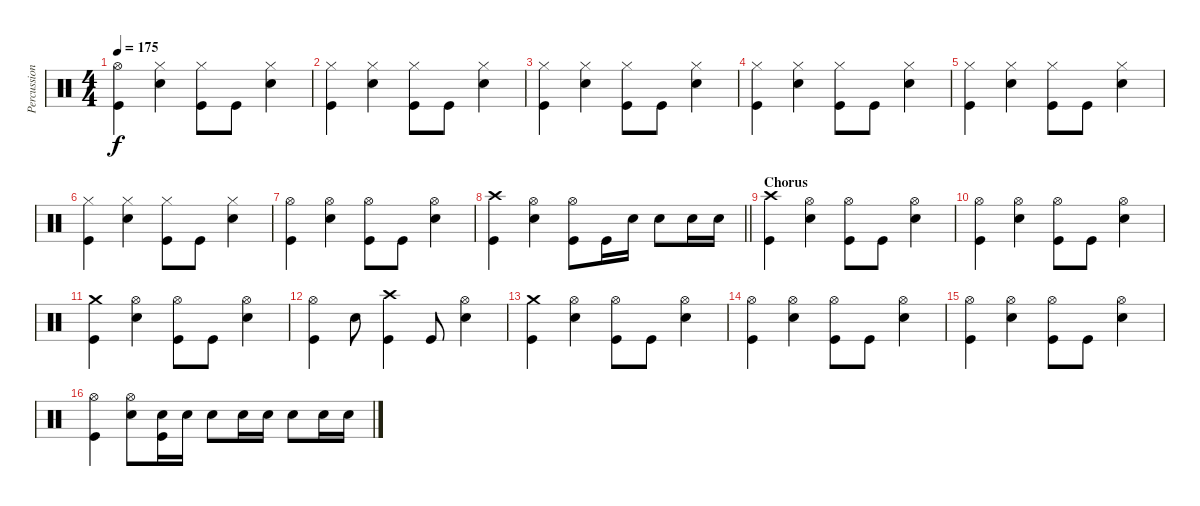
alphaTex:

\track ("Percussion" "Percussion") {instrument percussion}
\staff {score}
\articulation defaults
\ts (4 4)
\tempo 175
\clef neutral
\ks c
("Hi-Hat (open)" "Kick (hit)").4{dy f} ("Hi-Hat (closed)" "Electric Snare (hit)").4 ("Hi-Hat (closed)" "Kick (hit)").8 "Kick (hit)".8 ("Hi-Hat (closed)" "Electric Snare (hit)").4 |
("Hi-Hat (closed)" "Kick (hit)").4 ("Hi-Hat (closed)" "Electric Snare (hit)").4 ("Hi-Hat (closed)" "Kick (hit)").8 "Kick (hit)".8 ("Hi-Hat (closed)" "Electric Snare (hit)").4 |
("Hi-Hat (closed)" "Kick (hit)").4 ("Hi-Hat (closed)" "Electric Snare (hit)").4 ("Hi-Hat (closed)" "Kick (hit)").8 "Kick (hit)".8 ("Hi-Hat (closed)" "Electric Snare (hit)").4 |
("Hi-Hat (closed)" "Kick (hit)").4 ("Hi-Hat (closed)" "Electric Snare (hit)").4 ("Hi-Hat (closed)" "Kick (hit)").8 "Kick (hit)".8 ("Hi-Hat (closed)" "Electric Snare (hit)").4 |
("Hi-Hat (closed)" "Kick (hit)").4 ("Hi-Hat (closed)" "Electric Snare (hit)").4 ("Hi-Hat (closed)" "Kick (hit)").8 "Kick (hit)".8 ("Hi-Hat (closed)" "Electric Snare (hit)").4 |
("Hi-Hat (closed)" "Kick (hit)").4 ("Hi-Hat (closed)" "Electric Snare (hit)").4 ("Hi-Hat (closed)" "Kick (hit)").8 "Kick (hit)".8 ("Hi-Hat (closed)" "Electric Snare (hit)").4 |
("Hi-Hat (open)" "Kick (hit)").4 ("Hi-Hat (open)" "Electric Snare (hit)").4 ("Hi-Hat (open)" "Kick (hit)").8 "Kick (hit)".8 ("Hi-Hat (open)" "Electric Snare (hit)").4 |
\barLineRight lightlight
("Crash high (hit)" "Kick (hit)").4 ("Hi-Hat (open)" "Electric Snare (hit)").4 ("Hi-Hat (open)" "Kick (hit)").8 "Kick (hit)".16 "Electric Snare (hit)".16 "Electric Snare (hit)".8 "Electric Snare (hit)".16 "Electric Snare (hit)".16 |
\section ("" "Chorus")
("Crash high (hit)" "Kick (hit)").4 ("Hi-Hat (open)" "Electric Snare (hit)").4 ("Hi-Hat (open)" "Kick (hit)").8 "Kick (hit)".8 ("Hi-Hat (open)" "Electric Snare (hit)").4 |
("Hi-Hat (open)" "Kick (hit)").4 ("Hi-Hat (open)" "Electric Snare (hit)").4 ("Hi-Hat (open)" "Kick (hit)").8 "Kick (hit)".8 ("Hi-Hat (open)" "Electric Snare (hit)").4 |
("Crash medium (hit)" "Kick (hit)").4 ("Hi-Hat (open)" "Electric Snare (hit)").4 ("Hi-Hat (open)" "Kick (hit)").8 "Kick (hit)".8 ("Hi-Hat (open)" "Electric Snare (hit)").4 |
("Hi-Hat (open)" "Kick (hit)").4 "Electric Snare (hit)".8 ("Crash high (hit)" "Kick (hit)").4 "Kick (hit)".8 ("Hi-Hat (open)" "Electric Snare (hit)").4 |
("Crash medium (hit)" "Kick (hit)").4 ("Hi-Hat (open)" "Electric Snare (hit)").4 ("Hi-Hat (open)" "Kick (hit)").8 "Kick (hit)".8 ("Hi-Hat (open)" "Electric Snare (hit)").4 |
("Hi-Hat (open)" "Kick (hit)").4 ("Hi-Hat (open)" "Electric Snare (hit)").4 ("Hi-Hat (open)" "Kick (hit)").8 "Kick (hit)".8 ("Hi-Hat (open)" "Electric Snare (hit)").4 |
("Hi-Hat (open)" "Kick (hit)").4 ("Hi-Hat (open)" "Electric Snare (hit)").4 ("Hi-Hat (open)" "Kick (hit)").8 "Kick (hit)".8 ("Hi-Hat (open)" "Electric Snare (hit)").4 |
("Hi-Hat (open)" "Kick (hit)").4 ("Hi-Hat (open)" "Electric Snare (hit)").8 ("Electric Snare (hit)" "Kick (hit)").16 "Electric Snare (hit)".16 "Electric Snare (hit)".8 "Electric Snare (hit)".16 "Electric Snare (hit)".16 "Electric Snare (hit)".8 "Electric Snare (hit)".16 "Electric Snare (hit)".16
